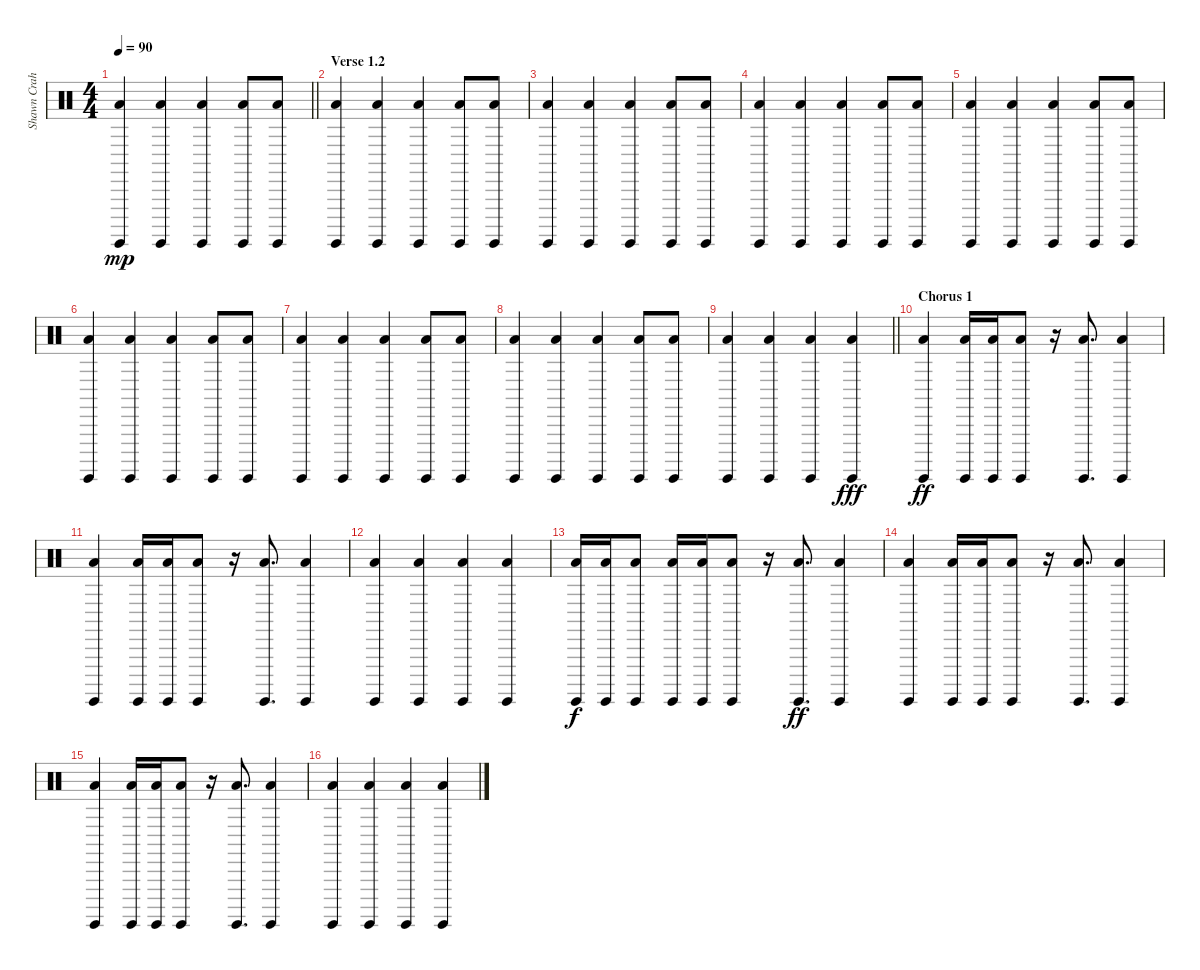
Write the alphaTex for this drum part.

\track ("Shawn Crahan" "Shawn Crah") {instrument percussion}
\staff {score}
\articulation defaults
\ts (4 4)
\tempo 90
\clef neutral
\barLineRight lightlight
\ks c
("Surdo (hit)" "Low Floor Tom (hit)").4{dy mp} ("Surdo (hit)" "Low Floor Tom (hit)").4 ("Surdo (hit)" "Low Floor Tom (hit)").4 ("Surdo (hit)" "Low Floor Tom (hit)").8 ("Surdo (hit)" "Low Floor Tom (hit)").8 |
\section ("" "Verse 1.2")
("Surdo (hit)" "Low Floor Tom (hit)").4 ("Surdo (hit)" "Low Floor Tom (hit)").4 ("Surdo (hit)" "Low Floor Tom (hit)").4 ("Surdo (hit)" "Low Floor Tom (hit)").8 ("Surdo (hit)" "Low Floor Tom (hit)").8 |
("Surdo (hit)" "Low Floor Tom (hit)").4 ("Surdo (hit)" "Low Floor Tom (hit)").4 ("Surdo (hit)" "Low Floor Tom (hit)").4 ("Surdo (hit)" "Low Floor Tom (hit)").8 ("Surdo (hit)" "Low Floor Tom (hit)").8 |
("Surdo (hit)" "Low Floor Tom (hit)").4 ("Surdo (hit)" "Low Floor Tom (hit)").4 ("Surdo (hit)" "Low Floor Tom (hit)").4 ("Surdo (hit)" "Low Floor Tom (hit)").8 ("Surdo (hit)" "Low Floor Tom (hit)").8 |
("Surdo (hit)" "Low Floor Tom (hit)").4 ("Surdo (hit)" "Low Floor Tom (hit)").4 ("Surdo (hit)" "Low Floor Tom (hit)").4 ("Surdo (hit)" "Low Floor Tom (hit)").8 ("Surdo (hit)" "Low Floor Tom (hit)").8 |
("Surdo (hit)" "Low Floor Tom (hit)").4 ("Surdo (hit)" "Low Floor Tom (hit)").4 ("Surdo (hit)" "Low Floor Tom (hit)").4 ("Surdo (hit)" "Low Floor Tom (hit)").8 ("Surdo (hit)" "Low Floor Tom (hit)").8 |
("Surdo (hit)" "Low Floor Tom (hit)").4 ("Surdo (hit)" "Low Floor Tom (hit)").4 ("Surdo (hit)" "Low Floor Tom (hit)").4 ("Surdo (hit)" "Low Floor Tom (hit)").8 ("Surdo (hit)" "Low Floor Tom (hit)").8 |
("Surdo (hit)" "Low Floor Tom (hit)").4 ("Surdo (hit)" "Low Floor Tom (hit)").4 ("Surdo (hit)" "Low Floor Tom (hit)").4 ("Surdo (hit)" "Low Floor Tom (hit)").8 ("Surdo (hit)" "Low Floor Tom (hit)").8 |
\barLineRight lightlight
("Surdo (hit)" "Low Floor Tom (hit)").4 ("Surdo (hit)" "Low Floor Tom (hit)").4 ("Surdo (hit)" "Low Floor Tom (hit)").4 ("Surdo (hit)" "Low Floor Tom (hit)").4{dy fff} |
\section ("" "Chorus 1")
("Surdo (hit)" "Low Floor Tom (hit)").4{dy ff} ("Surdo (hit)" "Low Floor Tom (hit)").16 ("Surdo (hit)" "Low Floor Tom (hit)").16 ("Surdo (hit)" "Low Floor Tom (hit)").8 r.16 ("Surdo (hit)" "Low Floor Tom (hit)").8{d} ("Surdo (hit)" "Low Floor Tom (hit)").4 |
("Surdo (hit)" "Low Floor Tom (hit)").4 ("Surdo (hit)" "Low Floor Tom (hit)").16 ("Surdo (hit)" "Low Floor Tom (hit)").16 ("Surdo (hit)" "Low Floor Tom (hit)").8 r.16 ("Surdo (hit)" "Low Floor Tom (hit)").8{d} ("Surdo (hit)" "Low Floor Tom (hit)").4 |
("Surdo (hit)" "Low Floor Tom (hit)").4 ("Surdo (hit)" "Low Floor Tom (hit)").4 ("Surdo (hit)" "Low Floor Tom (hit)").4 ("Surdo (hit)" "Low Floor Tom (hit)").4 |
("Surdo (hit)" "Low Floor Tom (hit)").16{dy f} ("Surdo (hit)" "Low Floor Tom (hit)").16 ("Surdo (hit)" "Low Floor Tom (hit)").8 ("Surdo (hit)" "Low Floor Tom (hit)").16 ("Surdo (hit)" "Low Floor Tom (hit)").16 ("Surdo (hit)" "Low Floor Tom (hit)").8 r.16 ("Surdo (hit)" "Low Floor Tom (hit)").8{d dy ff} ("Surdo (hit)" "Low Floor Tom (hit)").4 |
("Surdo (hit)" "Low Floor Tom (hit)").4 ("Surdo (hit)" "Low Floor Tom (hit)").16 ("Surdo (hit)" "Low Floor Tom (hit)").16 ("Surdo (hit)" "Low Floor Tom (hit)").8 r.16 ("Surdo (hit)" "Low Floor Tom (hit)").8{d} ("Surdo (hit)" "Low Floor Tom (hit)").4 |
("Surdo (hit)" "Low Floor Tom (hit)").4 ("Surdo (hit)" "Low Floor Tom (hit)").16 ("Surdo (hit)" "Low Floor Tom (hit)").16 ("Surdo (hit)" "Low Floor Tom (hit)").8 r.16 ("Surdo (hit)" "Low Floor Tom (hit)").8{d} ("Surdo (hit)" "Low Floor Tom (hit)").4 |
("Surdo (hit)" "Low Floor Tom (hit)").4 ("Surdo (hit)" "Low Floor Tom (hit)").4 ("Surdo (hit)" "Low Floor Tom (hit)").4 ("Surdo (hit)" "Low Floor Tom (hit)").4
